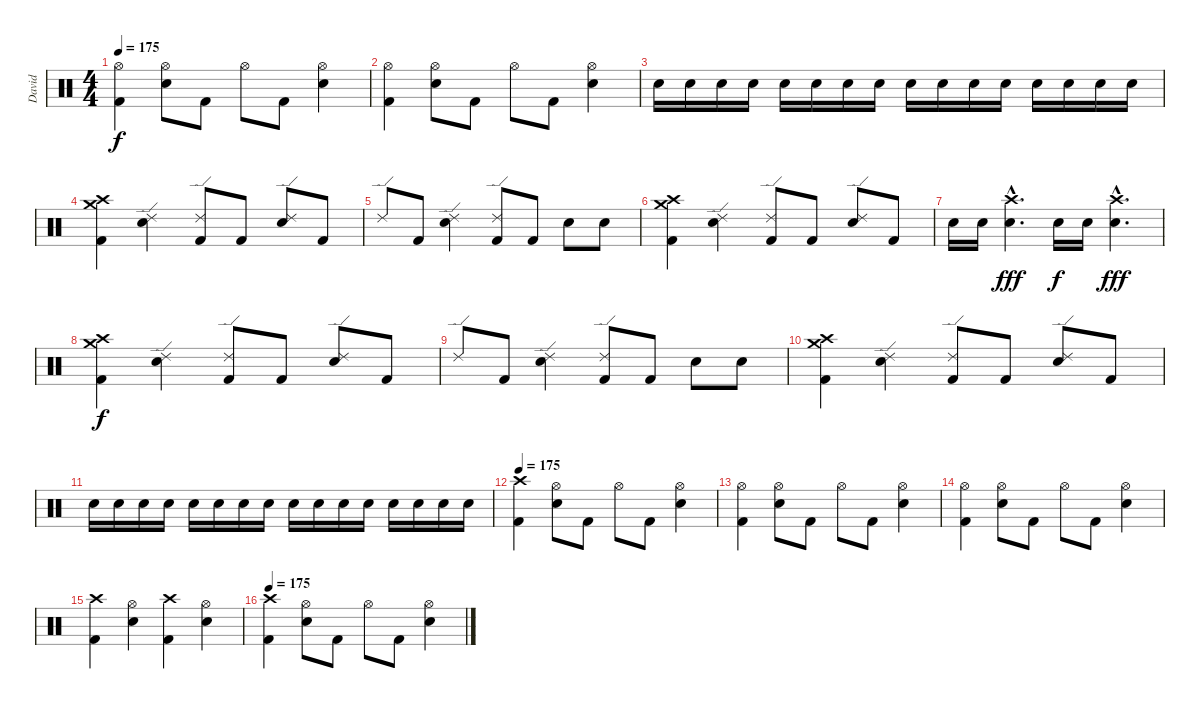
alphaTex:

\track ("David" "David") {instrument percussion}
\staff {score}
\articulation defaults
\ts (4 4)
\tempo 175
\clef neutral
\ks c
("Hi-Hat (open)" "Kick (hit) 2").4{dy f} ("Hi-Hat (open)" "Snare (hit) 2").8 "Kick (hit) 2".8 "Hi-Hat (open)".8 "Kick (hit) 2".8 ("Hi-Hat (open)" "Snare (hit) 2").4 |
("Hi-Hat (open)" "Kick (hit) 2").4 ("Hi-Hat (open)" "Snare (hit) 2").8 "Kick (hit) 2".8 "Hi-Hat (open)".8 "Kick (hit) 2".8 ("Hi-Hat (open)" "Snare (hit) 2").4 |
"Snare (hit) 2".16 "Snare (hit) 2".16 "Snare (hit) 2".16 "Snare (hit) 2".16 "Snare (hit) 2".16 "Snare (hit) 2".16 "Snare (hit) 2".16 "Snare (hit) 2".16 "Snare (hit) 2".16 "Snare (hit) 2".16 "Snare (hit) 2".16 "Snare (hit) 2".16 "Snare (hit) 2".16 "Snare (hit) 2".16 "Snare (hit) 2".16 "Snare (hit) 2".16 |
("Crash high (hit)" "Crash medium (hit)" "Kick (hit) 2").4 ("Ride (edge) 2" "Snare (hit) 2").4 ("Ride (edge) 2" "Kick (hit) 2").8 "Kick (hit) 2".8 ("Ride (edge) 2" "Snare (hit) 2").8 "Kick (hit) 2".8 |
"Ride (edge) 2".8 "Kick (hit) 2".8 ("Ride (edge) 2" "Snare (hit) 2").4 ("Ride (edge) 2" "Kick (hit) 2").8 "Kick (hit) 2".8 "Snare (hit) 2".8 "Snare (hit) 2".8 |
("Crash high (hit)" "Crash medium (hit)" "Kick (hit) 2").4 ("Ride (edge) 2" "Snare (hit) 2").4 ("Ride (edge) 2" "Kick (hit) 2").8 "Kick (hit) 2".8 ("Ride (edge) 2" "Snare (hit) 2").8 "Kick (hit) 2".8 |
"Snare (hit) 2".16 "Snare (hit) 2".16 ("Crash high (hit)" "Snare (hit) 2"{hac}).4{d dy fff} "Snare (hit) 2".16{dy f} "Snare (hit) 2".16 ("Crash high (hit)" "Snare (hit) 2"{hac}).4{d dy fff} |
("Crash high (hit)" "Crash medium (hit)" "Kick (hit) 2").4{dy f} ("Ride (edge) 2" "Snare (hit) 2").4 ("Ride (edge) 2" "Kick (hit) 2").8 "Kick (hit) 2".8 ("Ride (edge) 2" "Snare (hit) 2").8 "Kick (hit) 2".8 |
"Ride (edge) 2".8 "Kick (hit) 2".8 ("Ride (edge) 2" "Snare (hit) 2").4 ("Ride (edge) 2" "Kick (hit) 2").8 "Kick (hit) 2".8 "Snare (hit) 2".8 "Snare (hit) 2".8 |
("Crash high (hit)" "Crash medium (hit)" "Kick (hit) 2").4 ("Ride (edge) 2" "Snare (hit) 2").4 ("Ride (edge) 2" "Kick (hit) 2").8 "Kick (hit) 2".8 ("Ride (edge) 2" "Snare (hit) 2").8 "Kick (hit) 2".8 |
"Snare (hit) 2".16 "Snare (hit) 2".16 "Snare (hit) 2".16 "Snare (hit) 2".16 "Snare (hit) 2".16 "Snare (hit) 2".16 "Snare (hit) 2".16 "Snare (hit) 2".16 "Snare (hit) 2".16 "Snare (hit) 2".16 "Snare (hit) 2".16 "Snare (hit) 2".16 "Snare (hit) 2".16 "Snare (hit) 2".16 "Snare (hit) 2".16 "Snare (hit) 2".16 |
\tempo 175
("Crash high (hit)" "Kick (hit) 2").4 ("Hi-Hat (open)" "Snare (hit) 2").8 "Kick (hit) 2".8 "Hi-Hat (open)".8 "Kick (hit) 2".8 ("Hi-Hat (open)" "Snare (hit) 2").4 |
("Hi-Hat (open)" "Kick (hit) 2").4 ("Hi-Hat (open)" "Snare (hit) 2").8 "Kick (hit) 2".8 "Hi-Hat (open)".8 "Kick (hit) 2".8 ("Hi-Hat (open)" "Snare (hit) 2").4 |
("Hi-Hat (open)" "Kick (hit) 2").4 ("Hi-Hat (open)" "Snare (hit) 2").8 "Kick (hit) 2".8 "Hi-Hat (open)".8 "Kick (hit) 2".8 ("Hi-Hat (open)" "Snare (hit) 2").4 |
("Crash high (hit)" "Kick (hit) 2").4 ("Hi-Hat (open)" "Snare (hit) 2").4 ("Crash high (hit)" "Kick (hit) 2").4 ("Hi-Hat (open)" "Snare (hit) 2").4 |
\tempo 175
("Crash high (hit)" "Kick (hit) 2").4 ("Hi-Hat (open)" "Snare (hit) 2").8 "Kick (hit) 2".8 "Hi-Hat (open)".8 "Kick (hit) 2".8 ("Hi-Hat (open)" "Snare (hit) 2").4
